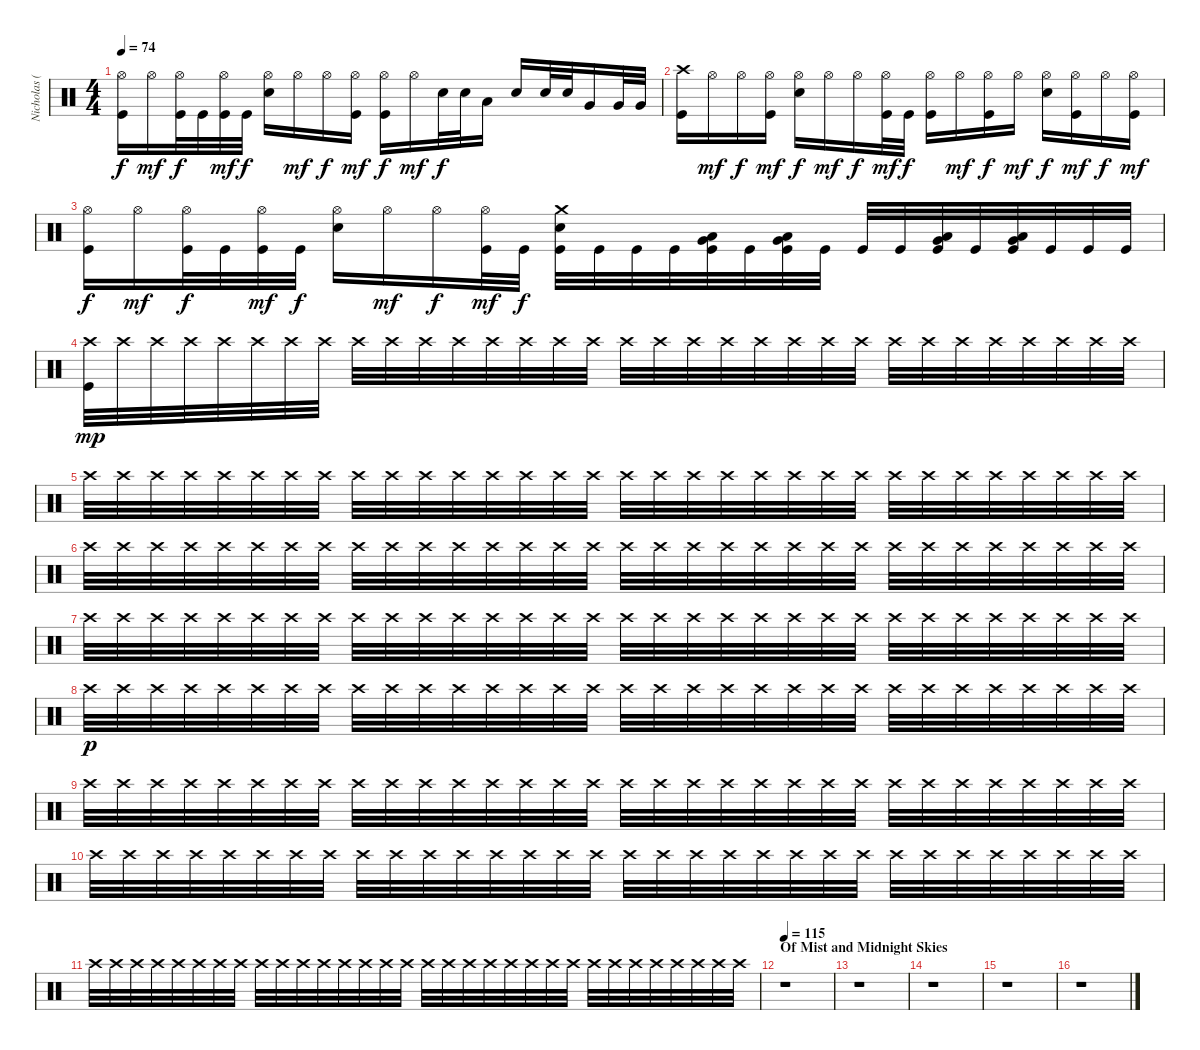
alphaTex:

\track ("Nicholas (Drums)" "Nicholas (") {instrument percussion}
\staff {score}
\articulation defaults
\ts (4 4)
\tempo 74
\clef neutral
\ks c
("Hi-Hat (open)" "Kick (hit)").16{dy f} "Hi-Hat (open)".16{dy mf} ("Hi-Hat (open)" "Kick (hit)").32{dy f} "Kick (hit)".32 ("Hi-Hat (open)" "Kick (hit)").32{dy mf} "Kick (hit)".32{dy f} ("Hi-Hat (open)" "Electric Snare (hit)").16 "Hi-Hat (open)".16{dy mf} "Hi-Hat (open)".16{dy f} ("Hi-Hat (open)" "Kick (hit)").16{dy mf} ("Hi-Hat (open)" "Kick (hit)").16{dy f} "Hi-Hat (open)".16{dy mf} "Electric Snare (hit)".32{dy f} "Electric Snare (hit)".32 "Low Tom (hit)".16 "Electric Snare (hit)".16 "Electric Snare (hit)".32 "Electric Snare (hit)".32 "Very Low Tom (hit)".16 "Very Low Tom (hit)".32 "Very Low Tom (hit)".32 |
("Crash high (hit)" "Kick (hit)").16 "Hi-Hat (open)".16{dy mf} "Hi-Hat (open)".16{dy f} ("Hi-Hat (open)" "Kick (hit)").16{dy mf} ("Hi-Hat (open)" "Electric Snare (hit)").16{dy f} "Hi-Hat (open)".16{dy mf} "Hi-Hat (open)".16{dy f} ("Hi-Hat (open)" "Kick (hit)").32{dy mf} "Kick (hit)".32{dy f} ("Hi-Hat (open)" "Kick (hit)").16 "Hi-Hat (open)".16{dy mf} ("Hi-Hat (open)" "Kick (hit)").16{dy f} "Hi-Hat (open)".16{dy mf} ("Hi-Hat (open)" "Electric Snare (hit)").16{dy f} ("Hi-Hat (open)" "Kick (hit)").16{dy mf} "Hi-Hat (open)".16{dy f} ("Hi-Hat (open)" "Kick (hit)").16{dy mf} |
("Hi-Hat (open)" "Kick (hit)").16{dy f} "Hi-Hat (open)".16{dy mf} ("Hi-Hat (open)" "Kick (hit)").32{dy f} "Kick (hit)".32 ("Hi-Hat (open)" "Kick (hit)").32{dy mf} "Kick (hit)".32{dy f} ("Hi-Hat (open)" "Electric Snare (hit)").16 "Hi-Hat (open)".16{dy mf} "Hi-Hat (open)".16{dy f} ("Hi-Hat (open)" "Kick (hit)").32{dy mf} "Kick (hit)".32{dy f} ("Crash medium (hit)" "Electric Snare (hit)" "Kick (hit)").32 "Kick (hit)".32 "Kick (hit)".32 "Kick (hit)".32 ("Very Low Tom (hit)" "Low Tom (hit)" "Kick (hit)").32{bd 60} "Kick (hit)".32 ("Very Low Tom (hit)" "Low Tom (hit)" "Kick (hit)").32{bd 60} "Kick (hit)".32 "Kick (hit)".32 "Kick (hit)".32 ("Very Low Tom (hit)" "Low Tom (hit)" "Kick (hit)").32{bd 60} "Kick (hit)".32 ("Very Low Tom (hit)" "Low Tom (hit)" "Kick (hit)").32{bd 60} "Kick (hit)".32 "Kick (hit)".32 "Kick (hit)".32 |
("Crash high (hit)" "Kick (hit)").32{dy mp} "Crash high (hit)".32 "Crash high (hit)".32 "Crash high (hit)".32 "Crash high (hit)".32 "Crash high (hit)".32 "Crash high (hit)".32 "Crash high (hit)".32 "Crash high (hit)".32 "Crash high (hit)".32 "Crash high (hit)".32 "Crash high (hit)".32 "Crash high (hit)".32 "Crash high (hit)".32 "Crash high (hit)".32 "Crash high (hit)".32 "Crash high (hit)".32 "Crash high (hit)".32 "Crash high (hit)".32 "Crash high (hit)".32 "Crash high (hit)".32 "Crash high (hit)".32 "Crash high (hit)".32 "Crash high (hit)".32 "Crash high (hit)".32 "Crash high (hit)".32 "Crash high (hit)".32 "Crash high (hit)".32 "Crash high (hit)".32 "Crash high (hit)".32 "Crash high (hit)".32 "Crash high (hit)".32 |
"Crash high (hit)".32 "Crash high (hit)".32 "Crash high (hit)".32 "Crash high (hit)".32 "Crash high (hit)".32 "Crash high (hit)".32 "Crash high (hit)".32 "Crash high (hit)".32 "Crash high (hit)".32 "Crash high (hit)".32 "Crash high (hit)".32 "Crash high (hit)".32 "Crash high (hit)".32 "Crash high (hit)".32 "Crash high (hit)".32 "Crash high (hit)".32 "Crash high (hit)".32 "Crash high (hit)".32 "Crash high (hit)".32 "Crash high (hit)".32 "Crash high (hit)".32 "Crash high (hit)".32 "Crash high (hit)".32 "Crash high (hit)".32 "Crash high (hit)".32 "Crash high (hit)".32 "Crash high (hit)".32 "Crash high (hit)".32 "Crash high (hit)".32 "Crash high (hit)".32 "Crash high (hit)".32 "Crash high (hit)".32 |
"Crash high (hit)".32 "Crash high (hit)".32 "Crash high (hit)".32 "Crash high (hit)".32 "Crash high (hit)".32 "Crash high (hit)".32 "Crash high (hit)".32 "Crash high (hit)".32 "Crash high (hit)".32 "Crash high (hit)".32 "Crash high (hit)".32 "Crash high (hit)".32 "Crash high (hit)".32 "Crash high (hit)".32 "Crash high (hit)".32 "Crash high (hit)".32 "Crash high (hit)".32 "Crash high (hit)".32 "Crash high (hit)".32 "Crash high (hit)".32 "Crash high (hit)".32 "Crash high (hit)".32 "Crash high (hit)".32 "Crash high (hit)".32 "Crash high (hit)".32 "Crash high (hit)".32 "Crash high (hit)".32 "Crash high (hit)".32 "Crash high (hit)".32 "Crash high (hit)".32 "Crash high (hit)".32 "Crash high (hit)".32 |
"Crash high (hit)".32 "Crash high (hit)".32 "Crash high (hit)".32 "Crash high (hit)".32 "Crash high (hit)".32 "Crash high (hit)".32 "Crash high (hit)".32 "Crash high (hit)".32 "Crash high (hit)".32 "Crash high (hit)".32 "Crash high (hit)".32 "Crash high (hit)".32 "Crash high (hit)".32 "Crash high (hit)".32 "Crash high (hit)".32 "Crash high (hit)".32 "Crash high (hit)".32 "Crash high (hit)".32 "Crash high (hit)".32 "Crash high (hit)".32 "Crash high (hit)".32 "Crash high (hit)".32 "Crash high (hit)".32 "Crash high (hit)".32 "Crash high (hit)".32 "Crash high (hit)".32 "Crash high (hit)".32 "Crash high (hit)".32 "Crash high (hit)".32 "Crash high (hit)".32 "Crash high (hit)".32 "Crash high (hit)".32 |
"Crash high (hit)".32{dy p volume 8} "Crash high (hit)".32 "Crash high (hit)".32 "Crash high (hit)".32 "Crash high (hit)".32 "Crash high (hit)".32 "Crash high (hit)".32 "Crash high (hit)".32 "Crash high (hit)".32 "Crash high (hit)".32 "Crash high (hit)".32 "Crash high (hit)".32 "Crash high (hit)".32 "Crash high (hit)".32 "Crash high (hit)".32 "Crash high (hit)".32 "Crash high (hit)".32 "Crash high (hit)".32 "Crash high (hit)".32 "Crash high (hit)".32 "Crash high (hit)".32 "Crash high (hit)".32 "Crash high (hit)".32 "Crash high (hit)".32 "Crash high (hit)".32 "Crash high (hit)".32 "Crash high (hit)".32 "Crash high (hit)".32 "Crash high (hit)".32 "Crash high (hit)".32 "Crash high (hit)".32 "Crash high (hit)".32 |
"Crash high (hit)".32 "Crash high (hit)".32 "Crash high (hit)".32 "Crash high (hit)".32 "Crash high (hit)".32 "Crash high (hit)".32 "Crash high (hit)".32 "Crash high (hit)".32 "Crash high (hit)".32 "Crash high (hit)".32 "Crash high (hit)".32 "Crash high (hit)".32 "Crash high (hit)".32 "Crash high (hit)".32 "Crash high (hit)".32 "Crash high (hit)".32 "Crash high (hit)".32 "Crash high (hit)".32 "Crash high (hit)".32 "Crash high (hit)".32 "Crash high (hit)".32 "Crash high (hit)".32 "Crash high (hit)".32 "Crash high (hit)".32 "Crash high (hit)".32 "Crash high (hit)".32 "Crash high (hit)".32 "Crash high (hit)".32 "Crash high (hit)".32 "Crash high (hit)".32 "Crash high (hit)".32 "Crash high (hit)".32 |
"Crash high (hit)".32{volume 0} "Crash high (hit)".32 "Crash high (hit)".32 "Crash high (hit)".32 "Crash high (hit)".32 "Crash high (hit)".32 "Crash high (hit)".32 "Crash high (hit)".32 "Crash high (hit)".32 "Crash high (hit)".32 "Crash high (hit)".32 "Crash high (hit)".32 "Crash high (hit)".32 "Crash high (hit)".32 "Crash high (hit)".32 "Crash high (hit)".32 "Crash high (hit)".32 "Crash high (hit)".32 "Crash high (hit)".32 "Crash high (hit)".32 "Crash high (hit)".32 "Crash high (hit)".32 "Crash high (hit)".32 "Crash high (hit)".32 "Crash high (hit)".32 "Crash high (hit)".32 "Crash high (hit)".32 "Crash high (hit)".32 "Crash high (hit)".32 "Crash high (hit)".32 "Crash high (hit)".32 "Crash high (hit)".32 |
"Crash high (hit)".32 "Crash high (hit)".32 "Crash high (hit)".32 "Crash high (hit)".32 "Crash high (hit)".32 "Crash high (hit)".32 "Crash high (hit)".32 "Crash high (hit)".32 "Crash high (hit)".32 "Crash high (hit)".32 "Crash high (hit)".32 "Crash high (hit)".32 "Crash high (hit)".32 "Crash high (hit)".32 "Crash high (hit)".32 "Crash high (hit)".32 "Crash high (hit)".32 "Crash high (hit)".32 "Crash high (hit)".32 "Crash high (hit)".32 "Crash high (hit)".32 "Crash high (hit)".32 "Crash high (hit)".32 "Crash high (hit)".32 "Crash high (hit)".32 "Crash high (hit)".32 "Crash high (hit)".32 "Crash high (hit)".32 "Crash high (hit)".32 "Crash high (hit)".32 "Crash high (hit)".32 "Crash high (hit)".32 |
\section ("" "Of Mist and Midnight Skies")
\tempo 115
r.1{volume 15} |
r.1 |
r.1 |
r.1 |
r.1
